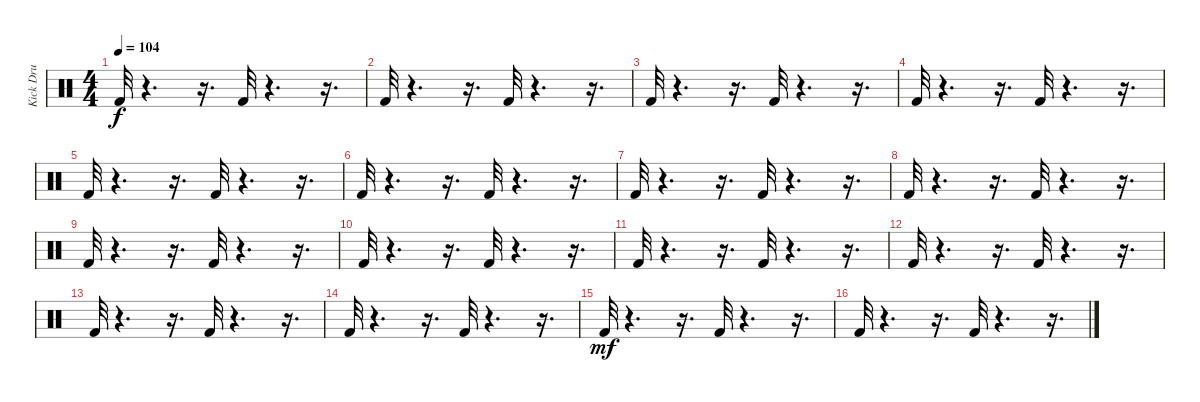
\track ("  Kick Drum 1" "  Kick Dru") {instrument percussion}
\staff {score}
\articulation defaults
\ts (4 4)
\tempo 104
\clef neutral
\ks c "Kick (hit) 2".32{dy f}
r.4{d} r.16{d} "Kick (hit) 2".32 r.4{d} r.16{d} |
"Kick (hit) 2".32 r.4{d} r.16{d} "Kick (hit) 2".32 r.4{d} r.16{d} |
"Kick (hit) 2".32 r.4{d} r.16{d} "Kick (hit) 2".32 r.4{d} r.16{d} |
"Kick (hit) 2".32 r.4{d} r.16{d} "Kick (hit) 2".32 r.4{d} r.16{d} |
"Kick (hit) 2".32 r.4{d} r.16{d} "Kick (hit) 2".32 r.4{d} r.16{d} |
"Kick (hit) 2".32 r.4{d} r.16{d} "Kick (hit) 2".32 r.4{d} r.16{d} |
"Kick (hit) 2".32 r.4{d} r.16{d} "Kick (hit) 2".32 r.4{d} r.16{d} |
"Kick (hit) 2".32 r.4{d} r.16{d} "Kick (hit) 2".32 r.4{d} r.16{d} |
"Kick (hit) 2".32 r.4{d} r.16{d} "Kick (hit) 2".32 r.4{d} r.16{d} |
"Kick (hit) 2".32 r.4{d} r.16{d} "Kick (hit) 2".32 r.4{d} r.16{d} |
"Kick (hit) 2".32 r.4{d} r.16{d} "Kick (hit) 2".32 r.4{d} r.16{d} |
"Kick (hit) 2".32 r.4{d} r.16{d} "Kick (hit) 2".32 r.4{d} r.16{d} |
"Kick (hit) 2".32 r.4{d} r.16{d} "Kick (hit) 2".32 r.4{d} r.16{d} |
"Kick (hit) 2".32 r.4{d} r.16{d} "Kick (hit) 2".32 r.4{d} r.16{d} |
"Kick (hit) 2".32{dy mf} r.4{d} r.16{d} "Kick (hit) 2".32 r.4{d} r.16{d} |
"Kick (hit) 2".32 r.4{d} r.16{d} "Kick (hit) 2".32 r.4{d} r.16{d}
